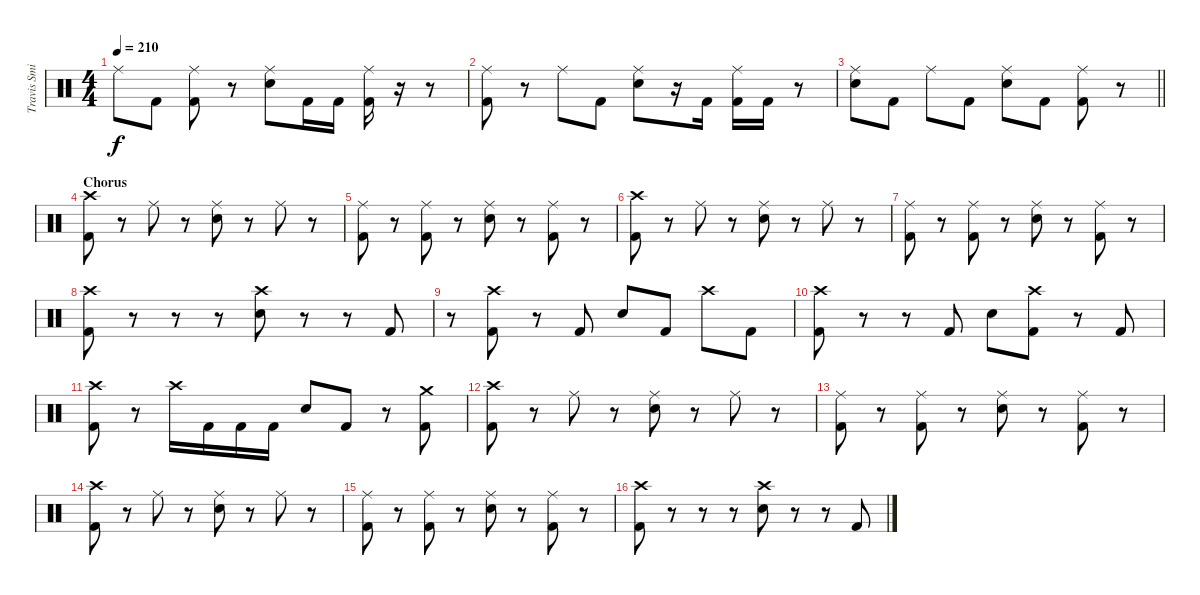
\track ("Travis Smith" "Travis Smi") {instrument percussion}
\staff {score}
\articulation defaults
\ts (4 4)
\tempo 210
\clef neutral
\ks c "Ride (middle)".8{dy f} "Kick (hit) 2".8
("Ride (middle)" "Kick (hit) 2").8 r.8 ("Ride (middle)" "Electric Snare (hit)").8 "Kick (hit) 2".16 "Kick (hit) 2".16 ("Ride (middle)" "Kick (hit) 2").16 r.16 r.8 |
("Ride (middle)" "Kick (hit) 2").8 r.8 "Ride (middle)".8 "Kick (hit) 2".8 ("Ride (middle)" "Electric Snare (hit)").8 r.16 "Kick (hit) 2".16 ("Ride (middle)" "Kick (hit) 2").16 "Kick (hit) 2".16 r.8 |
\barLineRight lightlight
("Ride (middle)" "Electric Snare (hit)").8 "Kick (hit) 2".8 "Ride (middle)".8 "Kick (hit) 2".8 ("Ride (middle)" "Electric Snare (hit)").8 "Kick (hit) 2".8 ("Ride (middle)" "Kick (hit) 2").8 r.8 |
\section ("" "Chorus")
("Crash high (hit)" "Kick (hit) 2").8 r.8 "Ride (middle)".8 r.8 ("Ride (middle)" "Electric Snare (hit)").8 r.8 "Ride (middle)".8 r.8 |
("Ride (middle)" "Kick (hit) 2").8 r.8 ("Ride (middle)" "Kick (hit) 2").8 r.8 ("Ride (middle)" "Electric Snare (hit)").8 r.8 ("Ride (middle)" "Kick (hit) 2").8 r.8 |
("Crash high (hit)" "Kick (hit) 2").8 r.8 "Ride (middle)".8 r.8 ("Ride (middle)" "Electric Snare (hit)").8 r.8 "Ride (middle)".8 r.8 |
("Ride (middle)" "Kick (hit) 2").8 r.8 ("Ride (middle)" "Kick (hit) 2").8 r.8 ("Ride (middle)" "Electric Snare (hit)").8 r.8 ("Ride (middle)" "Kick (hit) 2").8 r.8 |
("Crash high (hit)" "Kick (hit) 2").8 r.8 r.8 r.8 ("Crash high (hit)" "Electric Snare (hit)").8 r.8 r.8 "Kick (hit) 2".8 |
r.8 ("Crash high (hit)" "Kick (hit) 2").8 r.8 "Kick (hit) 2".8 "Electric Snare (hit)".8 "Kick (hit) 2".8 "Crash high (hit)".8 "Kick (hit) 2".8 |
("Crash high (hit)" "Kick (hit) 2").8 r.8 r.8 "Kick (hit) 2".8 "Electric Snare (hit)".8 ("Crash high (hit)" "Kick (hit) 2").8 r.8 "Kick (hit) 2".8 |
("Crash high (hit)" "Kick (hit) 2").8 r.8 "Crash high (hit)".16 "Kick (hit) 2".16 "Kick (hit) 2".16 "Kick (hit) 2".16 "Electric Snare (hit)".8 "Kick (hit) 2".8 r.8 ("Crash medium (hit)" "Kick (hit) 2").8 |
("Crash high (hit)" "Kick (hit) 2").8 r.8 "Ride (middle)".8 r.8 ("Ride (middle)" "Electric Snare (hit)").8 r.8 "Ride (middle)".8 r.8 |
("Ride (middle)" "Kick (hit) 2").8 r.8 ("Ride (middle)" "Kick (hit) 2").8 r.8 ("Ride (middle)" "Electric Snare (hit)").8 r.8 ("Ride (middle)" "Kick (hit) 2").8 r.8 |
("Crash high (hit)" "Kick (hit) 2").8 r.8 "Ride (middle)".8 r.8 ("Ride (middle)" "Electric Snare (hit)").8 r.8 "Ride (middle)".8 r.8 |
("Ride (middle)" "Kick (hit) 2").8 r.8 ("Ride (middle)" "Kick (hit) 2").8 r.8 ("Ride (middle)" "Electric Snare (hit)").8 r.8 ("Ride (middle)" "Kick (hit) 2").8 r.8 |
("Crash high (hit)" "Kick (hit) 2").8 r.8 r.8 r.8 ("Crash high (hit)" "Electric Snare (hit)").8 r.8 r.8 "Kick (hit) 2".8
